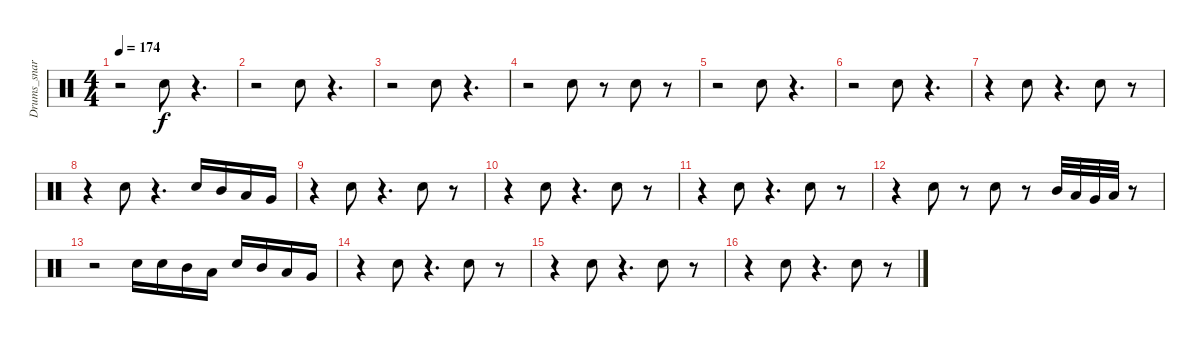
\track ("Drums_snare&tom" "Drums_snar") {instrument percussion}
\staff {score}
\articulation defaults
\ts (4 4)
\tempo 174
\clef neutral
\ks c
r.2{dy f} "Electric Snare (hit)".8 r.4{d} |
r.2 "Electric Snare (hit)".8 r.4{d} |
r.2 "Electric Snare (hit)".8 r.4{d} |
r.2 "Electric Snare (hit)".8 r.8 "Electric Snare (hit)".8 r.8 |
r.2 "Electric Snare (hit)".8 r.4{d} |
r.2 "Electric Snare (hit)".8 r.4{d} |
r.4 "Electric Snare (hit)".8 r.4{d} "Electric Snare (hit)".8 r.8 |
r.4 "Electric Snare (hit)".8 r.4{d} "Electric Snare (hit)".16 "Mid Tom (hit)".16 "Low Tom (hit)".16 "Very Low Tom (hit)".16 |
r.4 "Electric Snare (hit)".8 r.4{d} "Electric Snare (hit)".8 r.8 |
r.4 "Electric Snare (hit)".8 r.4{d} "Electric Snare (hit)".8 r.8 |
r.4 "Electric Snare (hit)".8 r.4{d} "Electric Snare (hit)".8 r.8 |
r.4 "Electric Snare (hit)".8 r.8 "Electric Snare (hit)".8 r.8 "Mid Tom (hit)".32 "Low Tom (hit)".32 "Very Low Tom (hit)".32 "Low Floor Tom (hit)".32 r.8 |
r.2 "Electric Snare (hit)".16 "Electric Snare (hit)".16 "Mid Tom (hit)".16 "Low Tom (hit)".16 "Electric Snare (hit)".16 "Mid Tom (hit)".16 "Low Tom (hit)".16 "Very Low Tom (hit)".16 |
r.4 "Electric Snare (hit)".8 r.4{d} "Electric Snare (hit)".8 r.8 |
r.4 "Electric Snare (hit)".8 r.4{d} "Electric Snare (hit)".8 r.8 |
r.4 "Electric Snare (hit)".8 r.4{d} "Electric Snare (hit)".8 r.8
